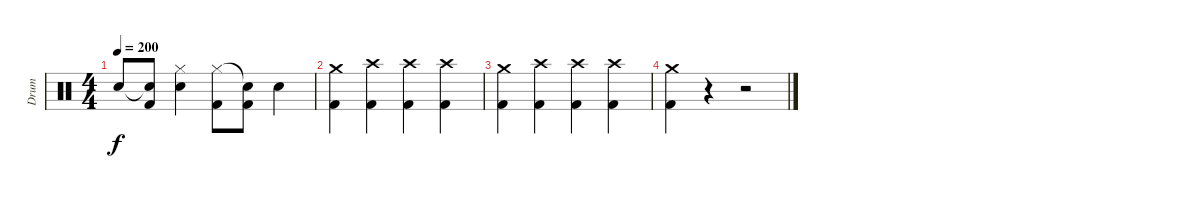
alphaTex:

\track ("Drum" "Drum") {instrument percussion}
\staff {score}
\articulation defaults
\ts (4 4)
\tempo 200
\clef neutral
\ks c "Snare (hit)"{t}.8{dy f}
("Snare (hit)"{t} "Kick (hit) 2").8 ("Hi-Hat (closed)" "Snare (hit) 2").4 ("Hi-Hat (closed)" "Kick (hit) 2").8 ("Snare (hit)"{t} "Kick (hit) 2").8 "Snare (hit) 2".4 |
("Crash medium (hit)" "Kick (hit) 2").4 ("Crash high (hit)" "Kick (hit) 2").4 ("Crash high (hit)" "Kick (hit) 2").4 ("Crash high (hit)" "Kick (hit) 2").4 |
("Crash medium (hit)" "Kick (hit) 2").4 ("Crash high (hit)" "Kick (hit) 2").4 ("Crash high (hit)" "Kick (hit) 2").4 ("Crash high (hit)" "Kick (hit) 2").4 |
("Crash medium (hit)" "Kick (hit) 2").4 r.4 r.2
